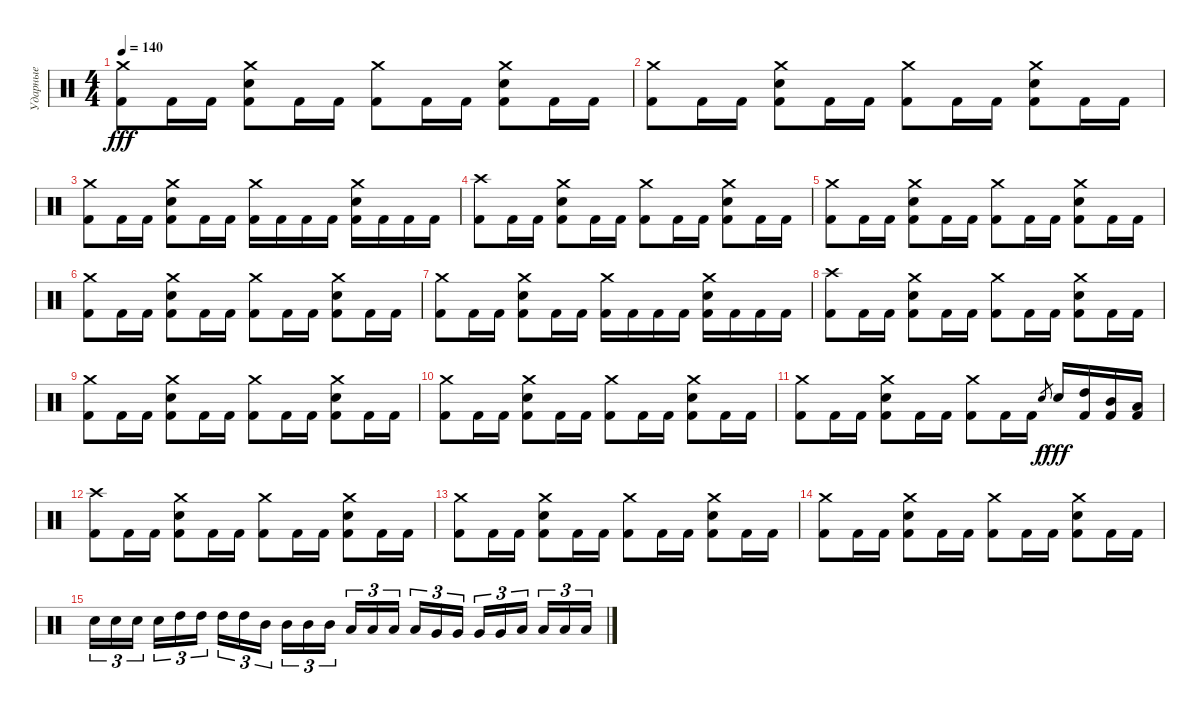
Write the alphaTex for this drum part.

\track ("Ударные" "Ударные") {instrument percussion}
\staff {score}
\articulation defaults
\ts (4 4)
\tempo 140
\clef neutral
\ks c
("Crash medium (hit)" "Kick (hit) 2").8{dy fff} "Kick (hit) 2".16 "Kick (hit) 2".16 ("Crash medium (hit)" "Electric Snare (hit)" "Kick (hit) 2").8 "Kick (hit) 2".16 "Kick (hit) 2".16 ("Crash medium (hit)" "Kick (hit) 2").8 "Kick (hit) 2".16 "Kick (hit) 2".16 ("Crash medium (hit)" "Electric Snare (hit)" "Kick (hit) 2").8 "Kick (hit) 2".16 "Kick (hit) 2".16 |
("Crash medium (hit)" "Kick (hit) 2").8 "Kick (hit) 2".16 "Kick (hit) 2".16 ("Crash medium (hit)" "Electric Snare (hit)" "Kick (hit) 2").8 "Kick (hit) 2".16 "Kick (hit) 2".16 ("Crash medium (hit)" "Kick (hit) 2").8 "Kick (hit) 2".16 "Kick (hit) 2".16 ("Crash medium (hit)" "Electric Snare (hit)" "Kick (hit) 2").8 "Kick (hit) 2".16 "Kick (hit) 2".16 |
("Crash medium (hit)" "Kick (hit) 2").8 "Kick (hit) 2".16 "Kick (hit) 2".16 ("Crash medium (hit)" "Electric Snare (hit)" "Kick (hit) 2").8 "Kick (hit) 2".16 "Kick (hit) 2".16 ("Crash medium (hit)" "Kick (hit) 2").16 "Kick (hit) 2".16 "Kick (hit) 2".16 "Kick (hit) 2".16 ("Crash medium (hit)" "Electric Snare (hit)" "Kick (hit) 2").16 "Kick (hit) 2".16 "Kick (hit) 2".16 "Kick (hit) 2".16 |
("Crash high (hit)" "Kick (hit) 2").8 "Kick (hit) 2".16 "Kick (hit) 2".16 ("Crash medium (hit)" "Electric Snare (hit)" "Kick (hit) 2").8 "Kick (hit) 2".16 "Kick (hit) 2".16 ("Crash medium (hit)" "Kick (hit) 2").8 "Kick (hit) 2".16 "Kick (hit) 2".16 ("Crash medium (hit)" "Electric Snare (hit)" "Kick (hit) 2").8 "Kick (hit) 2".16 "Kick (hit) 2".16 |
("Crash medium (hit)" "Kick (hit) 2").8 "Kick (hit) 2".16 "Kick (hit) 2".16 ("Crash medium (hit)" "Electric Snare (hit)" "Kick (hit) 2").8 "Kick (hit) 2".16 "Kick (hit) 2".16 ("Crash medium (hit)" "Kick (hit) 2").8 "Kick (hit) 2".16 "Kick (hit) 2".16 ("Crash medium (hit)" "Electric Snare (hit)" "Kick (hit) 2").8 "Kick (hit) 2".16 "Kick (hit) 2".16 |
("Crash medium (hit)" "Kick (hit) 2").8 "Kick (hit) 2".16 "Kick (hit) 2".16 ("Crash medium (hit)" "Electric Snare (hit)" "Kick (hit) 2").8 "Kick (hit) 2".16 "Kick (hit) 2".16 ("Crash medium (hit)" "Kick (hit) 2").8 "Kick (hit) 2".16 "Kick (hit) 2".16 ("Crash medium (hit)" "Electric Snare (hit)" "Kick (hit) 2").8 "Kick (hit) 2".16 "Kick (hit) 2".16 |
("Crash medium (hit)" "Kick (hit) 2").8 "Kick (hit) 2".16 "Kick (hit) 2".16 ("Crash medium (hit)" "Electric Snare (hit)" "Kick (hit) 2").8 "Kick (hit) 2".16 "Kick (hit) 2".16 ("Crash medium (hit)" "Kick (hit) 2").16 "Kick (hit) 2".16 "Kick (hit) 2".16 "Kick (hit) 2".16 ("Crash medium (hit)" "Electric Snare (hit)" "Kick (hit) 2").16 "Kick (hit) 2".16 "Kick (hit) 2".16 "Kick (hit) 2".16 |
("Crash high (hit)" "Kick (hit) 2").8 "Kick (hit) 2".16 "Kick (hit) 2".16 ("Crash medium (hit)" "Electric Snare (hit)" "Kick (hit) 2").8 "Kick (hit) 2".16 "Kick (hit) 2".16 ("Crash medium (hit)" "Kick (hit) 2").8 "Kick (hit) 2".16 "Kick (hit) 2".16 ("Crash medium (hit)" "Electric Snare (hit)" "Kick (hit) 2").8 "Kick (hit) 2".16 "Kick (hit) 2".16 |
("Crash medium (hit)" "Kick (hit) 2").8 "Kick (hit) 2".16 "Kick (hit) 2".16 ("Crash medium (hit)" "Electric Snare (hit)" "Kick (hit) 2").8 "Kick (hit) 2".16 "Kick (hit) 2".16 ("Crash medium (hit)" "Kick (hit) 2").8 "Kick (hit) 2".16 "Kick (hit) 2".16 ("Crash medium (hit)" "Electric Snare (hit)" "Kick (hit) 2").8 "Kick (hit) 2".16 "Kick (hit) 2".16 |
("Crash medium (hit)" "Kick (hit) 2").8 "Kick (hit) 2".16 "Kick (hit) 2".16 ("Crash medium (hit)" "Electric Snare (hit)" "Kick (hit) 2").8 "Kick (hit) 2".16 "Kick (hit) 2".16 ("Crash medium (hit)" "Kick (hit) 2").8 "Kick (hit) 2".16 "Kick (hit) 2".16 ("Crash medium (hit)" "Electric Snare (hit)" "Kick (hit) 2").8 "Kick (hit) 2".16 "Kick (hit) 2".16 |
("Crash medium (hit)" "Kick (hit) 2").8 "Kick (hit) 2".16 "Kick (hit) 2".16 ("Crash medium (hit)" "Electric Snare (hit)" "Kick (hit) 2").8 "Kick (hit) 2".16 "Kick (hit) 2".16 ("Crash medium (hit)" "Kick (hit) 2").8 "Kick (hit) 2".16 "Kick (hit) 2".16 "Electric Snare (hit)".8{gr dy f} "Electric Snare (hit)".16{dy fff} ("High Tom (hit)" "Kick (hit) 2").16 ("Mid Tom (hit)" "Kick (hit) 2").16 ("Low Tom (hit)" "Kick (hit) 2").16 |
("Crash high (hit)" "Kick (hit) 2").8 "Kick (hit) 2".16 "Kick (hit) 2".16 ("Crash medium (hit)" "Electric Snare (hit)" "Kick (hit) 2").8 "Kick (hit) 2".16 "Kick (hit) 2".16 ("Crash medium (hit)" "Kick (hit) 2").8 "Kick (hit) 2".16 "Kick (hit) 2".16 ("Crash medium (hit)" "Electric Snare (hit)" "Kick (hit) 2").8 "Kick (hit) 2".16 "Kick (hit) 2".16 |
("Crash medium (hit)" "Kick (hit) 2").8 "Kick (hit) 2".16 "Kick (hit) 2".16 ("Crash medium (hit)" "Electric Snare (hit)" "Kick (hit) 2").8 "Kick (hit) 2".16 "Kick (hit) 2".16 ("Crash medium (hit)" "Kick (hit) 2").8 "Kick (hit) 2".16 "Kick (hit) 2".16 ("Crash medium (hit)" "Electric Snare (hit)" "Kick (hit) 2").8 "Kick (hit) 2".16 "Kick (hit) 2".16 |
("Crash medium (hit)" "Kick (hit) 2").8 "Kick (hit) 2".16 "Kick (hit) 2".16 ("Crash medium (hit)" "Electric Snare (hit)" "Kick (hit) 2").8 "Kick (hit) 2".16 "Kick (hit) 2".16 ("Crash medium (hit)" "Kick (hit) 2").8 "Kick (hit) 2".16 "Kick (hit) 2".16 ("Crash medium (hit)" "Electric Snare (hit)" "Kick (hit) 2").8 "Kick (hit) 2".16 "Kick (hit) 2".16 |
"Electric Snare (hit)".16{tu (3 2)} "Electric Snare (hit)".16{tu (3 2)} "Electric Snare (hit)".16{tu (3 2) beam splitsecondary} "Electric Snare (hit)".16{tu (3 2)} "High Tom (hit)".16{tu (3 2)} "High Tom (hit)".16{tu (3 2)} "High Tom (hit)".16{tu (3 2)} "High Tom (hit)".16{tu (3 2)} "Mid Tom (hit)".16{tu (3 2) beam splitsecondary} "Mid Tom (hit)".16{tu (3 2)} "Mid Tom (hit)".16{tu (3 2)} "Mid Tom (hit)".16{tu (3 2)} "Low Tom (hit)".16{tu (3 2)} "Low Tom (hit)".16{tu (3 2)} "Low Tom (hit)".16{tu (3 2) beam splitsecondary} "Low Tom (hit)".16{tu (3 2)} "Very Low Tom (hit)".16{tu (3 2)} "Very Low Tom (hit)".16{tu (3 2)} "Very Low Tom (hit)".16{tu (3 2)} "Very Low Tom (hit)".16{tu (3 2)} "Low Floor Tom (hit)".16{tu (3 2) beam splitsecondary} "Low Floor Tom (hit)".16{tu (3 2)} "Low Floor Tom (hit)".16{tu (3 2)} "Low Floor Tom (hit)".16{tu (3 2)}
